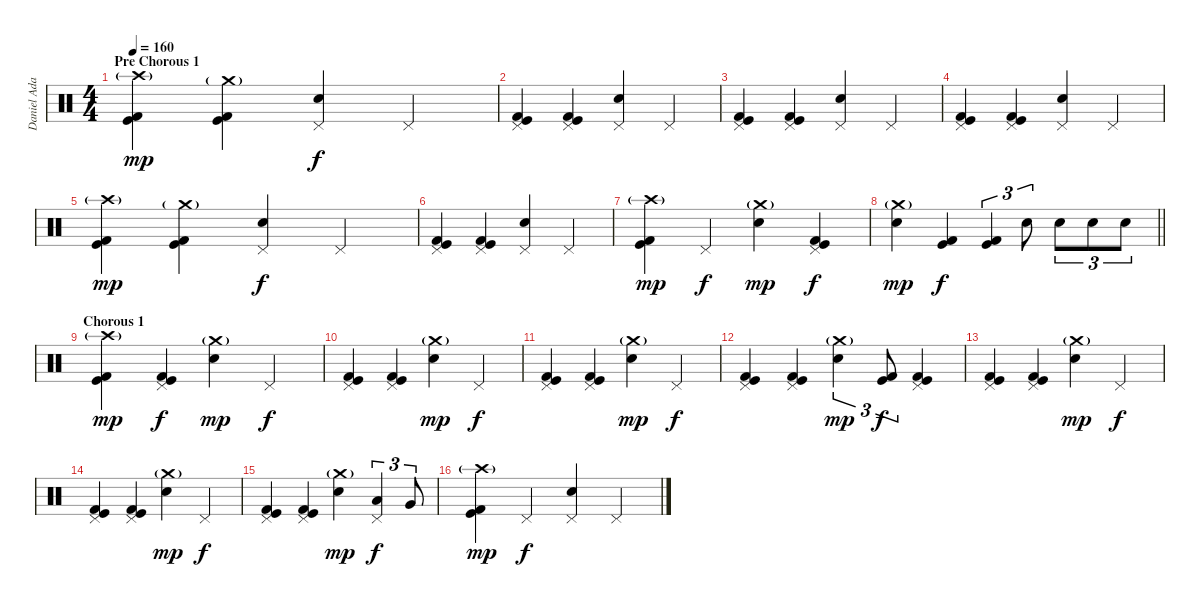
\track ("Daniel Adair" "Daniel Ada") {instrument percussion}
\staff {score}
\articulation defaults
\ts (4 4)
\section ("" "Pre Chorous 1")
\tempo 160
\clef neutral
\ks c
("Crash high (hit)"{g} "Kick (hit)" "Kick (hit) 2").4{dy mp} ("Crash medium (hit)"{g} "Kick (hit)" "Kick (hit) 2").4 ("Pedal Hi-Hat (hit)" "Electric Snare (hit)").4{dy f} "Pedal Hi-Hat (hit)".4 |
("Pedal Hi-Hat (hit)" "Kick (hit)" "Kick (hit) 2").4 ("Pedal Hi-Hat (hit)" "Kick (hit)" "Kick (hit) 2").4 ("Pedal Hi-Hat (hit)" "Electric Snare (hit)").4 "Pedal Hi-Hat (hit)".4 |
("Pedal Hi-Hat (hit)" "Kick (hit)" "Kick (hit) 2").4 ("Pedal Hi-Hat (hit)" "Kick (hit)" "Kick (hit) 2").4 ("Pedal Hi-Hat (hit)" "Electric Snare (hit)").4 "Pedal Hi-Hat (hit)".4 |
("Pedal Hi-Hat (hit)" "Kick (hit)" "Kick (hit) 2").4 ("Pedal Hi-Hat (hit)" "Kick (hit)" "Kick (hit) 2").4 ("Pedal Hi-Hat (hit)" "Electric Snare (hit)").4 "Pedal Hi-Hat (hit)".4 |
("Crash high (hit)"{g} "Kick (hit)" "Kick (hit) 2").4{dy mp} ("Crash medium (hit)"{g} "Kick (hit)" "Kick (hit) 2").4 ("Pedal Hi-Hat (hit)" "Electric Snare (hit)").4{dy f} "Pedal Hi-Hat (hit)".4 |
("Pedal Hi-Hat (hit)" "Kick (hit)" "Kick (hit) 2").4 ("Pedal Hi-Hat (hit)" "Kick (hit)" "Kick (hit) 2").4 ("Pedal Hi-Hat (hit)" "Electric Snare (hit)").4 "Pedal Hi-Hat (hit)".4 |
("Crash high (hit)"{g} "Kick (hit)" "Kick (hit) 2").4{dy mp} "Pedal Hi-Hat (hit)".4{dy f} ("Crash medium (hit)"{g} "Electric Snare (hit)").4{dy mp} ("Pedal Hi-Hat (hit)" "Kick (hit)" "Kick (hit) 2").4{dy f} |
\barLineRight lightlight
("Crash medium (hit)"{g} "Electric Snare (hit)").4{dy mp} ("Kick (hit)" "Kick (hit) 2").4{dy f} ("Kick (hit)" "Kick (hit) 2").4{tu (3 2)} "Electric Snare (hit)".8{tu (3 2)} "Electric Snare (hit)".8{tu (3 2)} "Electric Snare (hit)".8{tu (3 2)} "Electric Snare (hit)".8{tu (3 2)} |
\section ("" "Chorous 1")
("Crash high (hit)"{g} "Kick (hit)" "Kick (hit) 2").4{dy mp} ("Pedal Hi-Hat (hit)" "Kick (hit)" "Kick (hit) 2").4{dy f} ("Crash medium (hit)"{g} "Electric Snare (hit)").4{dy mp} "Pedal Hi-Hat (hit)".4{dy f} |
("Pedal Hi-Hat (hit)" "Kick (hit)" "Kick (hit) 2").4 ("Pedal Hi-Hat (hit)" "Kick (hit)" "Kick (hit) 2").4 ("Crash medium (hit)"{g} "Electric Snare (hit)").4{dy mp} "Pedal Hi-Hat (hit)".4{dy f} |
("Pedal Hi-Hat (hit)" "Kick (hit)" "Kick (hit) 2").4 ("Pedal Hi-Hat (hit)" "Kick (hit)" "Kick (hit) 2").4 ("Crash medium (hit)"{g} "Electric Snare (hit)").4{dy mp} "Pedal Hi-Hat (hit)".4{dy f} |
("Pedal Hi-Hat (hit)" "Kick (hit)" "Kick (hit) 2").4 ("Pedal Hi-Hat (hit)" "Kick (hit)" "Kick (hit) 2").4 ("Crash medium (hit)"{g} "Electric Snare (hit)").4{tu (3 2) dy mp} ("Kick (hit)" "Kick (hit) 2").8{tu (3 2) dy f} ("Pedal Hi-Hat (hit)" "Kick (hit)" "Kick (hit) 2").4 |
("Pedal Hi-Hat (hit)" "Kick (hit)" "Kick (hit) 2").4 ("Pedal Hi-Hat (hit)" "Kick (hit)" "Kick (hit) 2").4 ("Crash medium (hit)"{g} "Electric Snare (hit)").4{dy mp} "Pedal Hi-Hat (hit)".4{dy f} |
("Pedal Hi-Hat (hit)" "Kick (hit)" "Kick (hit) 2").4 ("Pedal Hi-Hat (hit)" "Kick (hit)" "Kick (hit) 2").4 ("Crash medium (hit)"{g} "Electric Snare (hit)").4{dy mp} "Pedal Hi-Hat (hit)".4{dy f} |
("Pedal Hi-Hat (hit)" "Kick (hit)" "Kick (hit) 2").4 ("Pedal Hi-Hat (hit)" "Kick (hit)" "Kick (hit) 2").4 ("Crash medium (hit)"{g} "Electric Snare (hit)").4{dy mp} ("Pedal Hi-Hat (hit)" "Low Tom (hit)").4{tu (3 2) dy f} "Very Low Tom (hit)".8{tu (3 2)} |
("Crash high (hit)"{g} "Kick (hit)" "Kick (hit) 2").4{dy mp} "Pedal Hi-Hat (hit)".4{dy f} ("Pedal Hi-Hat (hit)" "Electric Snare (hit)").4 "Pedal Hi-Hat (hit)".4
